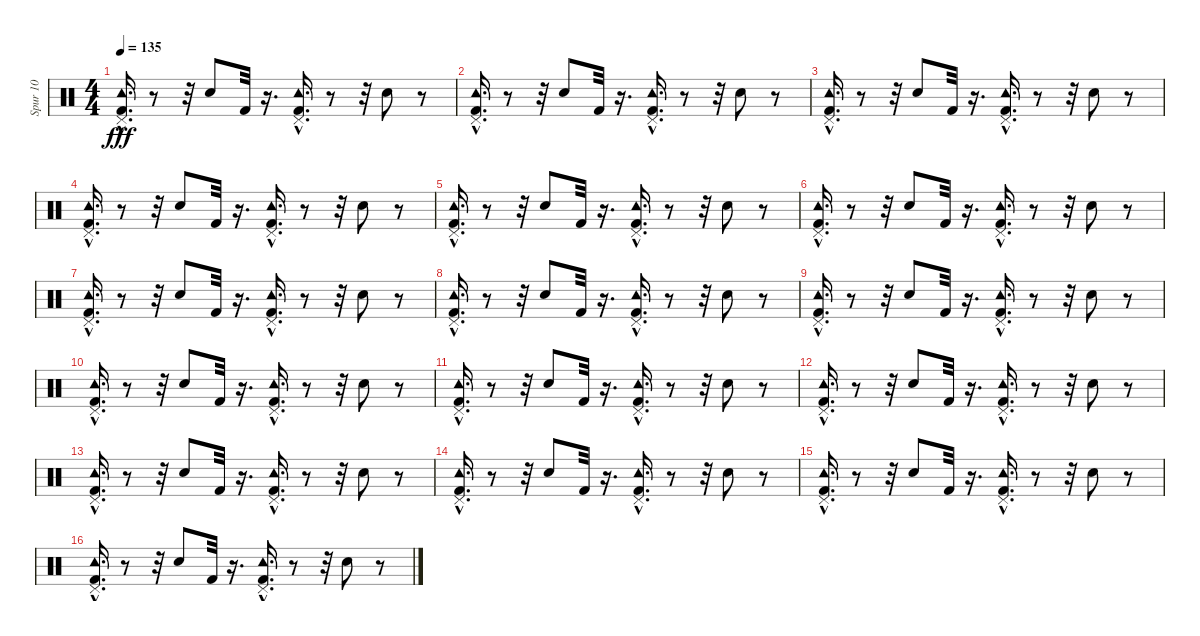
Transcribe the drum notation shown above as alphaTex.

\track ("Spur 10" "Spur 10") {instrument percussion}
\staff {score}
\articulation defaults
\ts (4 4)
\tempo 135
\clef neutral
\ks c
("Kick (hit) 2"{hac} "Tambourine (hit)" "Pedal Hi-Hat (hit)").16{d dy fff} r.8 r.32 "Electric Snare (hit)".8 "Kick (hit) 2".32 r.16{d} ("Pedal Hi-Hat (hit)" "Kick (hit) 2"{hac} "Tambourine (hit)").16{d} r.8 r.32 "Electric Snare (hit)".8 r.8 |
("Tambourine (hit)" "Kick (hit) 2"{hac} "Pedal Hi-Hat (hit)").16{d} r.8 r.32 "Electric Snare (hit)".8 "Kick (hit) 2".32 r.16{d} ("Tambourine (hit)" "Kick (hit) 2"{hac} "Pedal Hi-Hat (hit)").16{d} r.8 r.32 "Electric Snare (hit)".8 r.8 |
("Pedal Hi-Hat (hit)" "Kick (hit) 2"{hac} "Tambourine (hit)").16{d} r.8 r.32 "Electric Snare (hit)".8 "Kick (hit) 2".32 r.16{d} ("Pedal Hi-Hat (hit)" "Kick (hit) 2"{hac} "Tambourine (hit)").16{d} r.8 r.32 "Electric Snare (hit)".8 r.8 |
("Kick (hit) 2"{hac} "Pedal Hi-Hat (hit)" "Tambourine (hit)").16{d} r.8 r.32 "Electric Snare (hit)".8 "Kick (hit) 2".32 r.16{d} ("Pedal Hi-Hat (hit)" "Tambourine (hit)" "Kick (hit) 2"{hac}).16{d} r.8 r.32 "Electric Snare (hit)".8 r.8 |
("Tambourine (hit)" "Kick (hit) 2"{hac} "Pedal Hi-Hat (hit)").16{d} r.8 r.32 "Electric Snare (hit)".8 "Kick (hit) 2".32 r.16{d} ("Kick (hit) 2"{hac} "Tambourine (hit)" "Pedal Hi-Hat (hit)").16{d} r.8 r.32 "Electric Snare (hit)".8 r.8 |
("Kick (hit) 2"{hac} "Tambourine (hit)" "Pedal Hi-Hat (hit)").16{d} r.8 r.32 "Electric Snare (hit)".8 "Kick (hit) 2".32 r.16{d} ("Tambourine (hit)" "Kick (hit) 2"{hac} "Pedal Hi-Hat (hit)").16{d} r.8 r.32 "Electric Snare (hit)".8 r.8 |
("Kick (hit) 2"{hac} "Tambourine (hit)" "Pedal Hi-Hat (hit)").16{d} r.8 r.32 "Electric Snare (hit)".8 "Kick (hit) 2".32 r.16{d} ("Pedal Hi-Hat (hit)" "Tambourine (hit)" "Kick (hit) 2"{hac}).16{d} r.8 r.32 "Electric Snare (hit)".8 r.8 |
("Tambourine (hit)" "Pedal Hi-Hat (hit)" "Kick (hit) 2"{hac}).16{d} r.8 r.32 "Electric Snare (hit)".8 "Kick (hit) 2".32 r.16{d} ("Pedal Hi-Hat (hit)" "Kick (hit) 2"{hac} "Tambourine (hit)").16{d} r.8 r.32 "Electric Snare (hit)".8 r.8 |
("Tambourine (hit)" "Pedal Hi-Hat (hit)" "Kick (hit) 2"{hac}).16{d} r.8 r.32 "Electric Snare (hit)".8 "Kick (hit) 2".32 r.16{d} ("Pedal Hi-Hat (hit)" "Tambourine (hit)" "Kick (hit) 2"{hac}).16{d} r.8 r.32 "Electric Snare (hit)".8 r.8 |
("Tambourine (hit)" "Kick (hit) 2"{hac} "Pedal Hi-Hat (hit)").16{d} r.8 r.32 "Electric Snare (hit)".8 "Kick (hit) 2".32 r.16{d} ("Tambourine (hit)" "Kick (hit) 2"{hac} "Pedal Hi-Hat (hit)").16{d} r.8 r.32 "Electric Snare (hit)".8 r.8 |
("Kick (hit) 2"{hac} "Tambourine (hit)" "Pedal Hi-Hat (hit)").16{d} r.8 r.32 "Electric Snare (hit)".8 "Kick (hit) 2".32 r.16{d} ("Tambourine (hit)" "Kick (hit) 2"{hac} "Pedal Hi-Hat (hit)").16{d} r.8 r.32 "Electric Snare (hit)".8 r.8 |
("Kick (hit) 2"{hac} "Pedal Hi-Hat (hit)" "Tambourine (hit)").16{d} r.8 r.32 "Electric Snare (hit)".8 "Kick (hit) 2".32 r.16{d} ("Kick (hit) 2"{hac} "Pedal Hi-Hat (hit)" "Tambourine (hit)").16{d} r.8 r.32 "Electric Snare (hit)".8 r.8 |
("Tambourine (hit)" "Pedal Hi-Hat (hit)" "Kick (hit) 2"{hac}).16{d} r.8 r.32 "Electric Snare (hit)".8 "Kick (hit) 2".32 r.16{d} ("Tambourine (hit)" "Pedal Hi-Hat (hit)" "Kick (hit) 2"{hac}).16{d} r.8 r.32 "Electric Snare (hit)".8 r.8 |
("Tambourine (hit)" "Pedal Hi-Hat (hit)" "Kick (hit) 2"{hac}).16{d} r.8 r.32 "Electric Snare (hit)".8 "Kick (hit) 2".32 r.16{d} ("Kick (hit) 2"{hac} "Pedal Hi-Hat (hit)" "Tambourine (hit)").16{d} r.8 r.32 "Electric Snare (hit)".8 r.8 |
("Pedal Hi-Hat (hit)" "Kick (hit) 2"{hac} "Tambourine (hit)").16{d} r.8 r.32 "Electric Snare (hit)".8 "Kick (hit) 2".32 r.16{d} ("Tambourine (hit)" "Kick (hit) 2"{hac} "Pedal Hi-Hat (hit)").16{d} r.8 r.32 "Electric Snare (hit)".8 r.8 |
("Pedal Hi-Hat (hit)" "Kick (hit) 2"{hac} "Tambourine (hit)").16{d} r.8 r.32 "Electric Snare (hit)".8 "Kick (hit) 2".32 r.16{d} ("Pedal Hi-Hat (hit)" "Kick (hit) 2"{hac} "Tambourine (hit)").16{d} r.8 r.32 "Electric Snare (hit)".8 r.8
